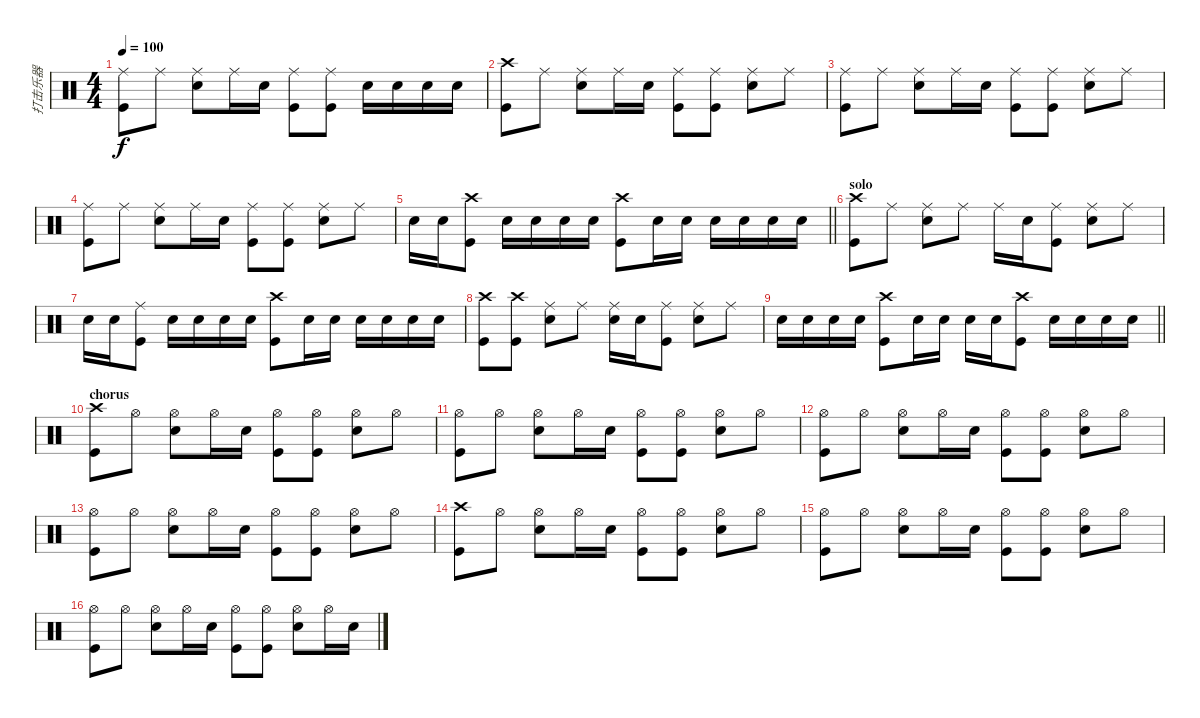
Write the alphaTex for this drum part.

\track ("打击乐器" "打击乐器") {instrument percussion}
\staff {score}
\articulation defaults
\ts (4 4)
\tempo 100
\clef neutral
\ks c
("Ride (middle)" "Kick (hit)").8{dy f} "Ride (middle)".8 ("Ride (middle)" "Electric Snare (hit)").8 "Ride (middle)".16 "Electric Snare (hit)".16 ("Ride (middle)" "Kick (hit)").8 ("Ride (middle)" "Kick (hit)").8 "Electric Snare (hit)".16 "Electric Snare (hit)".16 "Electric Snare (hit)".16 "Electric Snare (hit)".16 |
("Crash high (hit)" "Kick (hit)").8 "Ride (middle)".8 ("Ride (middle)" "Electric Snare (hit)").8 "Ride (middle)".16 "Electric Snare (hit)".16 ("Ride (middle)" "Kick (hit)").8 ("Ride (middle)" "Kick (hit)").8 ("Ride (middle)" "Electric Snare (hit)").8 "Ride (middle)".8 |
("Ride (middle)" "Kick (hit)").8 "Ride (middle)".8 ("Ride (middle)" "Electric Snare (hit)").8 "Ride (middle)".16 "Electric Snare (hit)".16 ("Ride (middle)" "Kick (hit)").8 ("Ride (middle)" "Kick (hit)").8 ("Ride (middle)" "Electric Snare (hit)").8 "Ride (middle)".8 |
("Ride (middle)" "Kick (hit)").8 "Ride (middle)".8 ("Ride (middle)" "Electric Snare (hit)").8 "Ride (middle)".16 "Electric Snare (hit)".16 ("Ride (middle)" "Kick (hit)").8 ("Ride (middle)" "Kick (hit)").8 ("Ride (middle)" "Electric Snare (hit)").8 "Ride (middle)".8 |
\barLineRight lightlight "Electric Snare (hit)".16 "Electric Snare (hit)".16
("Crash high (hit)" "Kick (hit)").8 "Electric Snare (hit)".16 "Electric Snare (hit)".16 "Electric Snare (hit)".16 "Electric Snare (hit)".16 ("Crash high (hit)" "Kick (hit)").8 "Electric Snare (hit)".16 "Electric Snare (hit)".16 "Electric Snare (hit)".16 "Electric Snare (hit)".16 "Electric Snare (hit)".16 "Electric Snare (hit)".16 |
\section ("" "solo")
("Crash high (hit)" "Kick (hit)").8 "Ride (middle)".8 ("Ride (middle)" "Electric Snare (hit)").8 "Ride (middle)".8 "Ride (middle)".16 "Electric Snare (hit)".16 ("Ride (middle)" "Kick (hit)").8 ("Ride (middle)" "Electric Snare (hit)").8 "Ride (middle)".8 |
"Electric Snare (hit)".16 "Electric Snare (hit)".16 ("Ride (middle)" "Kick (hit)").8 "Electric Snare (hit)".16 "Electric Snare (hit)".16 "Electric Snare (hit)".16 "Electric Snare (hit)".16 ("Crash high (hit)" "Kick (hit)").8 "Electric Snare (hit)".16 "Electric Snare (hit)".16 "Electric Snare (hit)".16 "Electric Snare (hit)".16 "Electric Snare (hit)".16 "Electric Snare (hit)".16 |
("Crash high (hit)" "Kick (hit)").8 ("Crash high (hit)" "Kick (hit)").8 ("Ride (middle)" "Electric Snare (hit)").8 "Ride (middle)".8 ("Ride (middle)" "Electric Snare (hit)").16 "Electric Snare (hit)".16 ("Ride (middle)" "Kick (hit)").8 ("Ride (middle)" "Electric Snare (hit)").8 "Ride (middle)".8 |
\barLineRight lightlight "Electric Snare (hit)".16 "Electric Snare (hit)".16 "Electric Snare (hit)".16 "Electric Snare (hit)".16
("Crash high (hit)" "Kick (hit)").8 "Electric Snare (hit)".16 "Electric Snare (hit)".16 "Electric Snare (hit)".16 "Electric Snare (hit)".16 ("Crash high (hit)" "Kick (hit)").8 "Electric Snare (hit)".16 "Electric Snare (hit)".16 "Electric Snare (hit)".16 "Electric Snare (hit)".16 |
\section ("" "chorus")
("Crash high (hit)" "Kick (hit)").8 "Hi-Hat (open)".8 ("Hi-Hat (open)" "Electric Snare (hit)").8 "Hi-Hat (open)".16 "Electric Snare (hit)".16 ("Hi-Hat (open)" "Kick (hit)").8 ("Hi-Hat (open)" "Kick (hit)").8 ("Hi-Hat (open)" "Electric Snare (hit)").8 "Hi-Hat (open)".8 |
("Hi-Hat (open)" "Kick (hit)").8 "Hi-Hat (open)".8 ("Hi-Hat (open)" "Electric Snare (hit)").8 "Hi-Hat (open)".16 "Electric Snare (hit)".16 ("Hi-Hat (open)" "Kick (hit)").8 ("Hi-Hat (open)" "Kick (hit)").8 ("Hi-Hat (open)" "Electric Snare (hit)").8 "Hi-Hat (open)".8 |
("Hi-Hat (open)" "Kick (hit)").8 "Hi-Hat (open)".8 ("Hi-Hat (open)" "Electric Snare (hit)").8 "Hi-Hat (open)".16 "Electric Snare (hit)".16 ("Hi-Hat (open)" "Kick (hit)").8 ("Hi-Hat (open)" "Kick (hit)").8 ("Hi-Hat (open)" "Electric Snare (hit)").8 "Hi-Hat (open)".8 |
("Hi-Hat (open)" "Kick (hit)").8 "Hi-Hat (open)".8 ("Hi-Hat (open)" "Electric Snare (hit)").8 "Hi-Hat (open)".16 "Electric Snare (hit)".16 ("Hi-Hat (open)" "Kick (hit)").8 ("Hi-Hat (open)" "Kick (hit)").8 ("Hi-Hat (open)" "Electric Snare (hit)").8 "Hi-Hat (open)".8 |
("Crash high (hit)" "Kick (hit)").8 "Hi-Hat (open)".8 ("Hi-Hat (open)" "Electric Snare (hit)").8 "Hi-Hat (open)".16 "Electric Snare (hit)".16 ("Hi-Hat (open)" "Kick (hit)").8 ("Hi-Hat (open)" "Kick (hit)").8 ("Hi-Hat (open)" "Electric Snare (hit)").8 "Hi-Hat (open)".8 |
("Hi-Hat (open)" "Kick (hit)").8 "Hi-Hat (open)".8 ("Hi-Hat (open)" "Electric Snare (hit)").8 "Hi-Hat (open)".16 "Electric Snare (hit)".16 ("Hi-Hat (open)" "Kick (hit)").8 ("Hi-Hat (open)" "Kick (hit)").8 ("Hi-Hat (open)" "Electric Snare (hit)").8 "Hi-Hat (open)".8 |
("Hi-Hat (open)" "Kick (hit)").8 "Hi-Hat (open)".8 ("Hi-Hat (open)" "Electric Snare (hit)").8 "Hi-Hat (open)".16 "Electric Snare (hit)".16 ("Hi-Hat (open)" "Kick (hit)").8 ("Hi-Hat (open)" "Kick (hit)").8 ("Hi-Hat (open)" "Electric Snare (hit)").8 "Hi-Hat (open)".16 "Electric Snare (hit)".16
